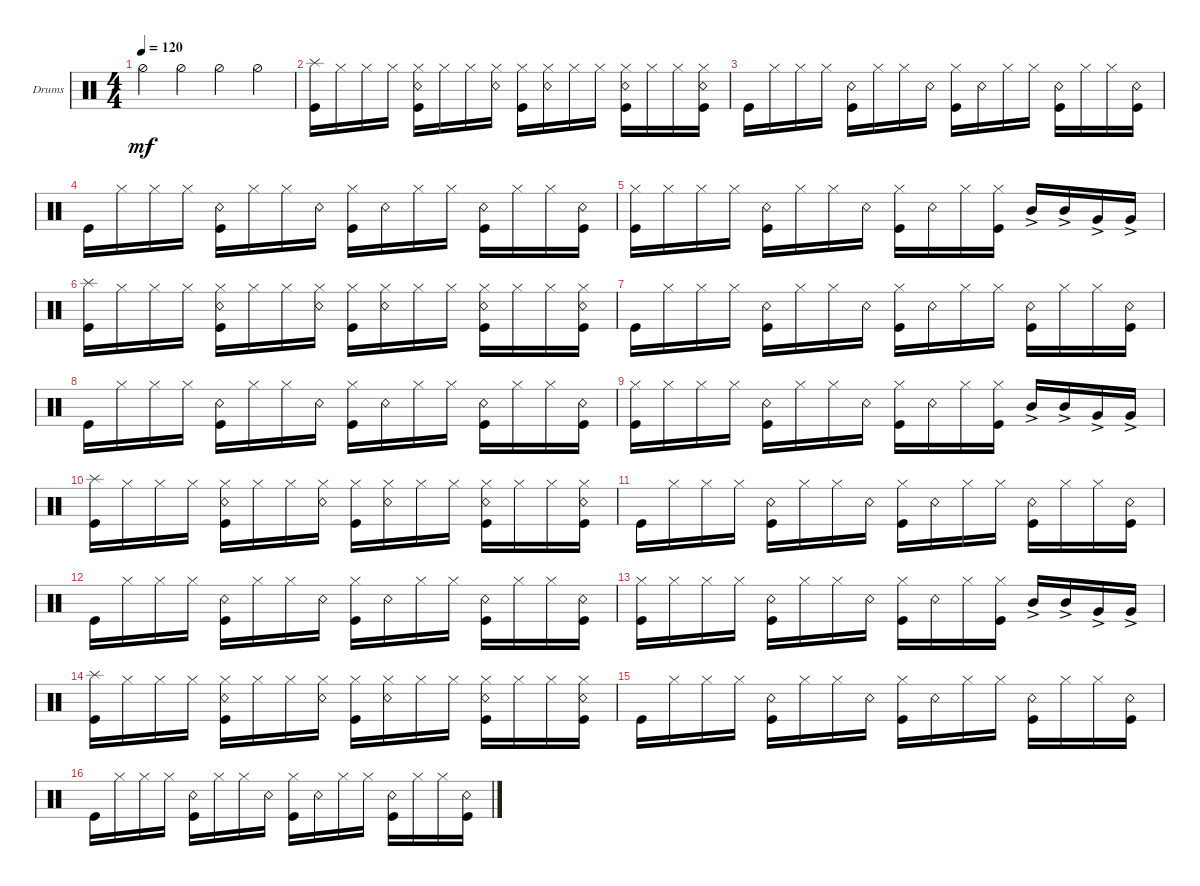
\defaultSystemsLayout 4
\bracketExtendMode groupsimilarinstruments
\firstSystemTrackNameOrientation horizontal
\otherSystemsTrackNameOrientation horizontal
\track ("Alex" "Drums") {instrument percussion}
\staff {score}
\articulation defaults
\ts (4 4)
\tempo 120
\clef neutral
\scale
0.474178
\ks c "Hi-Hat (half)".4{dy mf} "Hi-Hat (half)".4 "Hi-Hat (half)".4 "Hi-Hat (half)".4
|
\scale
0.262911 ("Kick (hit)" "Splash (hit)").16 "Hi-Hat (closed)".16 "Hi-Hat (closed)".16 "Hi-Hat (closed)".16 ("Snare (rim shot)" "Kick (hit)" "Hi-Hat (closed)").16 "Hi-Hat (closed)".16 "Hi-Hat (closed)".16 ("Snare (rim shot)" "Hi-Hat (closed)").16 ("Kick (hit)" "Hi-Hat (closed)").16 ("Snare (rim shot)" "Hi-Hat (closed)").16 "Hi-Hat (closed)".16 "Hi-Hat (closed)".16 ("Snare (rim shot)" "Kick (hit)" "Hi-Hat (closed)").16 "Hi-Hat (closed)".16 "Hi-Hat (closed)".16 ("Snare (rim shot)" "Kick (hit)" "Hi-Hat (closed)").16 |
\scale
0.262911 "Kick (hit)".16 "Hi-Hat (closed)".16 "Hi-Hat (closed)".16 "Hi-Hat (closed)".16 ("Snare (rim shot)" "Kick (hit)").16 "Hi-Hat (closed)".16 "Hi-Hat (closed)".16 "Snare (rim shot)".16 ("Kick (hit)" "Hi-Hat (closed)").16 "Snare (rim shot)".16 "Hi-Hat (closed)".16 "Hi-Hat (closed)".16 ("Snare (rim shot)" "Kick (hit)").16 "Hi-Hat (closed)".16 "Hi-Hat (closed)".16 ("Snare (rim shot)" "Kick (hit)").16 |
\scale
0.333333 "Kick (hit)".16 "Hi-Hat (closed)".16 "Hi-Hat (closed)".16 "Hi-Hat (closed)".16 ("Snare (rim shot)" "Kick (hit)").16 "Hi-Hat (closed)".16 "Hi-Hat (closed)".16 "Snare (rim shot)".16 ("Kick (hit)" "Hi-Hat (closed)").16 "Snare (rim shot)".16 "Hi-Hat (closed)".16 "Hi-Hat (closed)".16 ("Snare (rim shot)" "Kick (hit)").16 "Hi-Hat (closed)".16 "Hi-Hat (closed)".16 ("Snare (rim shot)" "Kick (hit)").16 |
\scale
0.333333 ("Kick (hit)" "Hi-Hat (closed)").16 "Hi-Hat (closed)".16 "Hi-Hat (closed)".16 "Hi-Hat (closed)".16 ("Snare (rim shot)" "Kick (hit)").16 "Hi-Hat (closed)".16 "Hi-Hat (closed)".16 "Snare (rim shot)".16 ("Kick (hit)" "Hi-Hat (closed)").16 "Snare (rim shot)".16 "Hi-Hat (closed)".16 ("Kick (hit)" "Hi-Hat (closed)").16 "Mid Tom (hit)"{ac}.16 "Mid Tom (hit)"{ac}.16 "Very Low Tom (hit)"{ac}.16 "Very Low Tom (hit)"{ac}.16 |
\scale
0.333333 ("Kick (hit)" "Splash (hit)").16 "Hi-Hat (closed)".16 "Hi-Hat (closed)".16 "Hi-Hat (closed)".16 ("Snare (rim shot)" "Kick (hit)" "Hi-Hat (closed)").16 "Hi-Hat (closed)".16 "Hi-Hat (closed)".16 ("Snare (rim shot)" "Hi-Hat (closed)").16 ("Kick (hit)" "Hi-Hat (closed)").16 ("Snare (rim shot)" "Hi-Hat (closed)").16 "Hi-Hat (closed)".16 "Hi-Hat (closed)".16 ("Snare (rim shot)" "Kick (hit)" "Hi-Hat (closed)").16 "Hi-Hat (closed)".16 "Hi-Hat (closed)".16 ("Snare (rim shot)" "Kick (hit)" "Hi-Hat (closed)").16 |
\scale
0.333333 "Kick (hit)".16 "Hi-Hat (closed)".16 "Hi-Hat (closed)".16 "Hi-Hat (closed)".16 ("Snare (rim shot)" "Kick (hit)").16 "Hi-Hat (closed)".16 "Hi-Hat (closed)".16 "Snare (rim shot)".16 ("Kick (hit)" "Hi-Hat (closed)").16 "Snare (rim shot)".16 "Hi-Hat (closed)".16 "Hi-Hat (closed)".16 ("Snare (rim shot)" "Kick (hit)").16 "Hi-Hat (closed)".16 "Hi-Hat (closed)".16 ("Snare (rim shot)" "Kick (hit)").16 |
\scale
0.333333 "Kick (hit)".16 "Hi-Hat (closed)".16 "Hi-Hat (closed)".16 "Hi-Hat (closed)".16 ("Snare (rim shot)" "Kick (hit)").16 "Hi-Hat (closed)".16 "Hi-Hat (closed)".16 "Snare (rim shot)".16 ("Kick (hit)" "Hi-Hat (closed)").16 "Snare (rim shot)".16 "Hi-Hat (closed)".16 "Hi-Hat (closed)".16 ("Snare (rim shot)" "Kick (hit)").16 "Hi-Hat (closed)".16 "Hi-Hat (closed)".16 ("Snare (rim shot)" "Kick (hit)").16 |
\scale
0.333333 ("Kick (hit)" "Hi-Hat (closed)").16 "Hi-Hat (closed)".16 "Hi-Hat (closed)".16 "Hi-Hat (closed)".16 ("Snare (rim shot)" "Kick (hit)").16 "Hi-Hat (closed)".16 "Hi-Hat (closed)".16 "Snare (rim shot)".16 ("Kick (hit)" "Hi-Hat (closed)").16 "Snare (rim shot)".16 "Hi-Hat (closed)".16 ("Kick (hit)" "Hi-Hat (closed)").16 "Mid Tom (hit)"{ac}.16 "Mid Tom (hit)"{ac}.16 "Very Low Tom (hit)"{ac}.16 "Very Low Tom (hit)"{ac}.16 |
\scale
0.333333 ("Kick (hit)" "Splash (hit)").16 "Hi-Hat (closed)".16 "Hi-Hat (closed)".16 "Hi-Hat (closed)".16 ("Snare (rim shot)" "Kick (hit)" "Hi-Hat (closed)").16 "Hi-Hat (closed)".16 "Hi-Hat (closed)".16 ("Snare (rim shot)" "Hi-Hat (closed)").16 ("Kick (hit)" "Hi-Hat (closed)").16 ("Snare (rim shot)" "Hi-Hat (closed)").16 "Hi-Hat (closed)".16 "Hi-Hat (closed)".16 ("Snare (rim shot)" "Kick (hit)" "Hi-Hat (closed)").16 "Hi-Hat (closed)".16 "Hi-Hat (closed)".16 ("Snare (rim shot)" "Kick (hit)" "Hi-Hat (closed)").16 |
\scale
0.333333 "Kick (hit)".16 "Hi-Hat (closed)".16 "Hi-Hat (closed)".16 "Hi-Hat (closed)".16 ("Snare (rim shot)" "Kick (hit)").16 "Hi-Hat (closed)".16 "Hi-Hat (closed)".16 "Snare (rim shot)".16 ("Kick (hit)" "Hi-Hat (closed)").16 "Snare (rim shot)".16 "Hi-Hat (closed)".16 "Hi-Hat (closed)".16 ("Snare (rim shot)" "Kick (hit)").16 "Hi-Hat (closed)".16 "Hi-Hat (closed)".16 ("Snare (rim shot)" "Kick (hit)").16 |
\scale
0.333333 "Kick (hit)".16 "Hi-Hat (closed)".16 "Hi-Hat (closed)".16 "Hi-Hat (closed)".16 ("Snare (rim shot)" "Kick (hit)").16 "Hi-Hat (closed)".16 "Hi-Hat (closed)".16 "Snare (rim shot)".16 ("Kick (hit)" "Hi-Hat (closed)").16 "Snare (rim shot)".16 "Hi-Hat (closed)".16 "Hi-Hat (closed)".16 ("Snare (rim shot)" "Kick (hit)").16 "Hi-Hat (closed)".16 "Hi-Hat (closed)".16 ("Snare (rim shot)" "Kick (hit)").16 |
\scale
0.333333 ("Kick (hit)" "Hi-Hat (closed)").16 "Hi-Hat (closed)".16 "Hi-Hat (closed)".16 "Hi-Hat (closed)".16 ("Snare (rim shot)" "Kick (hit)").16 "Hi-Hat (closed)".16 "Hi-Hat (closed)".16 "Snare (rim shot)".16 ("Kick (hit)" "Hi-Hat (closed)").16 "Snare (rim shot)".16 "Hi-Hat (closed)".16 ("Kick (hit)" "Hi-Hat (closed)").16 "Mid Tom (hit)"{ac}.16 "Mid Tom (hit)"{ac}.16 "Very Low Tom (hit)"{ac}.16 "Very Low Tom (hit)"{ac}.16 |
\scale
0.333333 ("Kick (hit)" "Splash (hit)").16 "Hi-Hat (closed)".16 "Hi-Hat (closed)".16 "Hi-Hat (closed)".16 ("Snare (rim shot)" "Kick (hit)" "Hi-Hat (closed)").16 "Hi-Hat (closed)".16 "Hi-Hat (closed)".16 ("Snare (rim shot)" "Hi-Hat (closed)").16 ("Kick (hit)" "Hi-Hat (closed)").16 ("Snare (rim shot)" "Hi-Hat (closed)").16 "Hi-Hat (closed)".16 "Hi-Hat (closed)".16 ("Snare (rim shot)" "Kick (hit)" "Hi-Hat (closed)").16 "Hi-Hat (closed)".16 "Hi-Hat (closed)".16 ("Snare (rim shot)" "Kick (hit)" "Hi-Hat (closed)").16 |
\scale
0.333333 "Kick (hit)".16 "Hi-Hat (closed)".16 "Hi-Hat (closed)".16 "Hi-Hat (closed)".16 ("Snare (rim shot)" "Kick (hit)").16 "Hi-Hat (closed)".16 "Hi-Hat (closed)".16 "Snare (rim shot)".16 ("Kick (hit)" "Hi-Hat (closed)").16 "Snare (rim shot)".16 "Hi-Hat (closed)".16 "Hi-Hat (closed)".16 ("Snare (rim shot)" "Kick (hit)").16 "Hi-Hat (closed)".16 "Hi-Hat (closed)".16 ("Snare (rim shot)" "Kick (hit)").16 |
"Kick (hit)".16 "Hi-Hat (closed)".16 "Hi-Hat (closed)".16 "Hi-Hat (closed)".16 ("Snare (rim shot)" "Kick (hit)").16 "Hi-Hat (closed)".16 "Hi-Hat (closed)".16 "Snare (rim shot)".16 ("Kick (hit)" "Hi-Hat (closed)").16 "Snare (rim shot)".16 "Hi-Hat (closed)".16 "Hi-Hat (closed)".16 ("Snare (rim shot)" "Kick (hit)").16 "Hi-Hat (closed)".16 "Hi-Hat (closed)".16 ("Snare (rim shot)" "Kick (hit)").16
